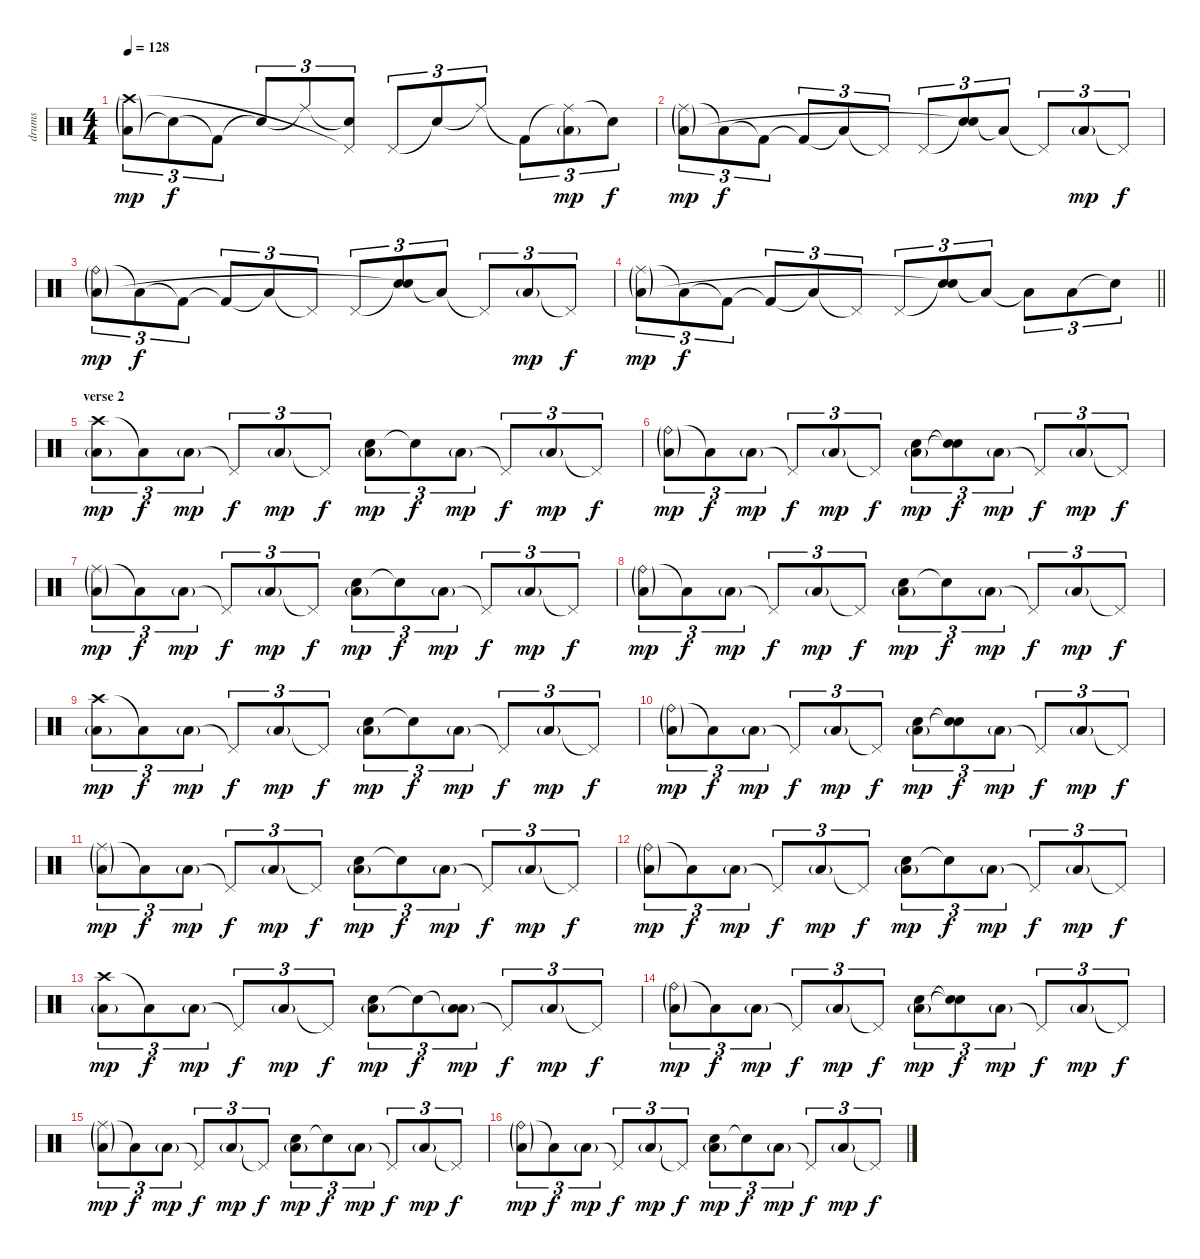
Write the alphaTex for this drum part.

\track ("drums" "drums") {instrument percussion}
\staff {score}
\articulation defaults
\ts (4 4)
\tempo 128
\clef neutral
\ks c
("Low Floor Tom (hit)"{g} "Crash high (hit)"{g}).8{tu (3 2) dy mp} "Snare (hit)"{t}.8{tu (3 2) dy f} "Kick (hit) 2"{t}.8{tu (3 2)} "Snare (hit)"{t}.8{tu (3 2)} "Ride (middle)"{t}.8{tu (3 2)} ("Snare (hit)"{t} "Pedal Hi-Hat (hit)"{t}).8{tu (3 2)} "Pedal Hi-Hat (hit)".8{tu (3 2)} "Snare (hit)"{t}.8{tu (3 2)} "Ride (middle)"{t}.8{tu (3 2)} "Kick (hit) 2"{t}.8{tu (3 2)} ("Ride (middle)"{t} "Low Floor Tom (hit)"{g}).8{tu (3 2) dy mp} "Snare (hit)"{t}.8{tu (3 2) dy f} |
("Ride (middle)"{g} "Low Floor Tom (hit)"{g}).8{tu (3 2) dy mp} "Low Floor Tom (hit)"{t}.8{tu (3 2) dy f} "Kick (hit) 2"{t}.8{tu (3 2)} "Kick (hit) 2"{t}.8{tu (3 2)} "Low Floor Tom (hit)"{t}.8{tu (3 2)} "Pedal Hi-Hat (hit)"{t}.8{tu (3 2)} "Pedal Hi-Hat (hit)".8{tu (3 2)} ("Electric Snare (hit)"{t} "Snare (hit)"{t}).8{tu (3 2)} "Low Floor Tom (hit)"{t}.8{tu (3 2)} "Pedal Hi-Hat (hit)"{t}.8{tu (3 2)} "Low Floor Tom (hit)"{g}.8{tu (3 2) dy mp} "Pedal Hi-Hat (hit)"{t}.8{tu (3 2) dy f} |
("Ride (bell)"{g} "Low Floor Tom (hit)"{g}).8{tu (3 2) dy mp} "Low Floor Tom (hit)"{t}.8{tu (3 2) dy f} "Kick (hit) 2"{t}.8{tu (3 2)} "Kick (hit) 2"{t}.8{tu (3 2)} "Low Floor Tom (hit)"{t}.8{tu (3 2)} "Pedal Hi-Hat (hit)"{t}.8{tu (3 2)} "Pedal Hi-Hat (hit)".8{tu (3 2)} ("Electric Snare (hit)"{t} "Snare (hit)"{t}).8{tu (3 2)} "Low Floor Tom (hit)"{t}.8{tu (3 2)} "Pedal Hi-Hat (hit)"{t}.8{tu (3 2)} "Low Floor Tom (hit)"{g}.8{tu (3 2) dy mp} "Pedal Hi-Hat (hit)"{t}.8{tu (3 2) dy f} |
\barLineRight lightlight
("Ride (middle)"{g} "Low Floor Tom (hit)"{g}).8{tu (3 2) dy mp} "Low Floor Tom (hit)"{t}.8{tu (3 2) dy f} "Kick (hit) 2"{t}.8{tu (3 2)} "Kick (hit) 2"{t}.8{tu (3 2)} "Low Floor Tom (hit)"{t}.8{tu (3 2)} "Pedal Hi-Hat (hit)"{t}.8{tu (3 2)} "Pedal Hi-Hat (hit)".8{tu (3 2)} ("Electric Snare (hit)"{t} "Snare (hit)"{t}).8{tu (3 2)} "Low Floor Tom (hit)"{t}.8{tu (3 2)} "Low Floor Tom (hit)"{t}.8{tu (3 2)} "Low Floor Tom (hit)".8{tu (3 2)} "Electric Snare (hit)"{t}.8{tu (3 2)} |
\section ("" "verse 2")
("Crash high (hit)" "Low Floor Tom (hit)"{g}).8{tu (3 2) dy mp} "Low Floor Tom (hit)"{t}.8{tu (3 2) dy f} "Low Floor Tom (hit)"{g}.8{tu (3 2) dy mp} "Pedal Hi-Hat (hit)"{t}.8{tu (3 2) dy f} "Low Floor Tom (hit)"{g}.8{tu (3 2) dy mp} "Pedal Hi-Hat (hit)"{t}.8{tu (3 2) dy f} ("Electric Snare (hit)" "Low Floor Tom (hit)"{g}).8{tu (3 2) dy mp} "Electric Snare (hit)"{t}.8{tu (3 2) dy f} "Low Floor Tom (hit)"{g}.8{tu (3 2) dy mp} "Pedal Hi-Hat (hit)"{t}.8{tu (3 2) dy f} "Low Floor Tom (hit)"{g}.8{tu (3 2) dy mp} "Pedal Hi-Hat (hit)"{t}.8{tu (3 2) dy f} |
("Ride (bell)"{g} "Low Floor Tom (hit)"{g}).8{tu (3 2) dy mp} "Low Floor Tom (hit)"{t}.8{tu (3 2) dy f} "Low Floor Tom (hit)"{g}.8{tu (3 2) dy mp} "Pedal Hi-Hat (hit)"{t}.8{tu (3 2) dy f} "Low Floor Tom (hit)"{g}.8{tu (3 2) dy mp} "Pedal Hi-Hat (hit)"{t}.8{tu (3 2) dy f} ("Electric Snare (hit)" "Low Floor Tom (hit)"{g}).8{tu (3 2) dy mp} ("Electric Snare (hit)"{t} "Snare (hit)"{t}).8{tu (3 2) dy f} "Low Floor Tom (hit)"{g}.8{tu (3 2) dy mp} "Pedal Hi-Hat (hit)"{t}.8{tu (3 2) dy f} "Low Floor Tom (hit)"{g}.8{tu (3 2) dy mp} "Pedal Hi-Hat (hit)"{t}.8{tu (3 2) dy f} |
("Ride (middle)"{g} "Low Floor Tom (hit)"{g}).8{tu (3 2) dy mp} "Low Floor Tom (hit)"{t}.8{tu (3 2) dy f} "Low Floor Tom (hit)"{g}.8{tu (3 2) dy mp} "Pedal Hi-Hat (hit)"{t}.8{tu (3 2) dy f} "Low Floor Tom (hit)"{g}.8{tu (3 2) dy mp} "Pedal Hi-Hat (hit)"{t}.8{tu (3 2) dy f} ("Electric Snare (hit)" "Low Floor Tom (hit)"{g}).8{tu (3 2) dy mp} "Electric Snare (hit)"{t}.8{tu (3 2) dy f} "Low Floor Tom (hit)"{g}.8{tu (3 2) dy mp} "Pedal Hi-Hat (hit)"{t}.8{tu (3 2) dy f} "Low Floor Tom (hit)"{g}.8{tu (3 2) dy mp} "Pedal Hi-Hat (hit)"{t}.8{tu (3 2) dy f} |
("Ride (bell)"{g} "Low Floor Tom (hit)"{g}).8{tu (3 2) dy mp} "Low Floor Tom (hit)"{t}.8{tu (3 2) dy f} "Low Floor Tom (hit)"{g}.8{tu (3 2) dy mp} "Pedal Hi-Hat (hit)"{t}.8{tu (3 2) dy f} "Low Floor Tom (hit)"{g}.8{tu (3 2) dy mp} "Pedal Hi-Hat (hit)"{t}.8{tu (3 2) dy f} ("Electric Snare (hit)" "Low Floor Tom (hit)"{g}).8{tu (3 2) dy mp} "Electric Snare (hit)"{t}.8{tu (3 2) dy f} "Low Floor Tom (hit)"{g}.8{tu (3 2) dy mp} "Pedal Hi-Hat (hit)"{t}.8{tu (3 2) dy f} "Low Floor Tom (hit)"{g}.8{tu (3 2) dy mp} "Pedal Hi-Hat (hit)"{t}.8{tu (3 2) dy f} |
("Crash high (hit)" "Low Floor Tom (hit)"{g}).8{tu (3 2) dy mp} "Low Floor Tom (hit)"{t}.8{tu (3 2) dy f} "Low Floor Tom (hit)"{g}.8{tu (3 2) dy mp} "Pedal Hi-Hat (hit)"{t}.8{tu (3 2) dy f} "Low Floor Tom (hit)"{g}.8{tu (3 2) dy mp} "Pedal Hi-Hat (hit)"{t}.8{tu (3 2) dy f} ("Electric Snare (hit)" "Low Floor Tom (hit)"{g}).8{tu (3 2) dy mp} "Electric Snare (hit)"{t}.8{tu (3 2) dy f} "Low Floor Tom (hit)"{g}.8{tu (3 2) dy mp} "Pedal Hi-Hat (hit)"{t}.8{tu (3 2) dy f} "Low Floor Tom (hit)"{g}.8{tu (3 2) dy mp} "Pedal Hi-Hat (hit)"{t}.8{tu (3 2) dy f} |
("Ride (bell)"{g} "Low Floor Tom (hit)"{g}).8{tu (3 2) dy mp} "Low Floor Tom (hit)"{t}.8{tu (3 2) dy f} "Low Floor Tom (hit)"{g}.8{tu (3 2) dy mp} "Pedal Hi-Hat (hit)"{t}.8{tu (3 2) dy f} "Low Floor Tom (hit)"{g}.8{tu (3 2) dy mp} "Pedal Hi-Hat (hit)"{t}.8{tu (3 2) dy f} ("Electric Snare (hit)" "Low Floor Tom (hit)"{g}).8{tu (3 2) dy mp} ("Electric Snare (hit)"{t} "Snare (hit)"{t}).8{tu (3 2) dy f} "Low Floor Tom (hit)"{g}.8{tu (3 2) dy mp} "Pedal Hi-Hat (hit)"{t}.8{tu (3 2) dy f} "Low Floor Tom (hit)"{g}.8{tu (3 2) dy mp} "Pedal Hi-Hat (hit)"{t}.8{tu (3 2) dy f} |
("Ride (middle)"{g} "Low Floor Tom (hit)"{g}).8{tu (3 2) dy mp} "Low Floor Tom (hit)"{t}.8{tu (3 2) dy f} "Low Floor Tom (hit)"{g}.8{tu (3 2) dy mp} "Pedal Hi-Hat (hit)"{t}.8{tu (3 2) dy f} "Low Floor Tom (hit)"{g}.8{tu (3 2) dy mp} "Pedal Hi-Hat (hit)"{t}.8{tu (3 2) dy f} ("Electric Snare (hit)" "Low Floor Tom (hit)"{g}).8{tu (3 2) dy mp} "Electric Snare (hit)"{t}.8{tu (3 2) dy f} "Low Floor Tom (hit)"{g}.8{tu (3 2) dy mp} "Pedal Hi-Hat (hit)"{t}.8{tu (3 2) dy f} "Low Floor Tom (hit)"{g}.8{tu (3 2) dy mp} "Pedal Hi-Hat (hit)"{t}.8{tu (3 2) dy f} |
("Ride (bell)"{g} "Low Floor Tom (hit)"{g}).8{tu (3 2) dy mp} "Low Floor Tom (hit)"{t}.8{tu (3 2) dy f} "Low Floor Tom (hit)"{g}.8{tu (3 2) dy mp} "Pedal Hi-Hat (hit)"{t}.8{tu (3 2) dy f} "Low Floor Tom (hit)"{g}.8{tu (3 2) dy mp} "Pedal Hi-Hat (hit)"{t}.8{tu (3 2) dy f} ("Electric Snare (hit)" "Low Floor Tom (hit)"{g}).8{tu (3 2) dy mp} "Electric Snare (hit)"{t}.8{tu (3 2) dy f} "Low Floor Tom (hit)"{g}.8{tu (3 2) dy mp} "Pedal Hi-Hat (hit)"{t}.8{tu (3 2) dy f} "Low Floor Tom (hit)"{g}.8{tu (3 2) dy mp} "Pedal Hi-Hat (hit)"{t}.8{tu (3 2) dy f} |
("Crash high (hit)" "Low Floor Tom (hit)"{g}).8{tu (3 2) dy mp} "Low Floor Tom (hit)"{t}.8{tu (3 2) dy f} "Low Floor Tom (hit)"{g}.8{tu (3 2) dy mp} "Pedal Hi-Hat (hit)"{t}.8{tu (3 2) dy f} "Low Floor Tom (hit)"{g}.8{tu (3 2) dy mp} "Pedal Hi-Hat (hit)"{t}.8{tu (3 2) dy f} ("Electric Snare (hit)" "Low Floor Tom (hit)"{g}).8{tu (3 2) dy mp} "Electric Snare (hit)"{t}.8{tu (3 2) dy f} ("Low Floor Tom (hit)"{t} "Low Floor Tom (hit)"{g}).8{tu (3 2) dy mp} "Pedal Hi-Hat (hit)"{t}.8{tu (3 2) dy f} "Low Floor Tom (hit)"{g}.8{tu (3 2) dy mp} "Pedal Hi-Hat (hit)"{t}.8{tu (3 2) dy f} |
("Ride (bell)"{g} "Low Floor Tom (hit)"{g}).8{tu (3 2) dy mp} "Low Floor Tom (hit)"{t}.8{tu (3 2) dy f} "Low Floor Tom (hit)"{g}.8{tu (3 2) dy mp} "Pedal Hi-Hat (hit)"{t}.8{tu (3 2) dy f} "Low Floor Tom (hit)"{g}.8{tu (3 2) dy mp} "Pedal Hi-Hat (hit)"{t}.8{tu (3 2) dy f} ("Electric Snare (hit)" "Low Floor Tom (hit)"{g}).8{tu (3 2) dy mp} ("Electric Snare (hit)"{t} "Snare (hit)"{t}).8{tu (3 2) dy f} "Low Floor Tom (hit)"{g}.8{tu (3 2) dy mp} "Pedal Hi-Hat (hit)"{t}.8{tu (3 2) dy f} "Low Floor Tom (hit)"{g}.8{tu (3 2) dy mp} "Pedal Hi-Hat (hit)"{t}.8{tu (3 2) dy f} |
("Ride (middle)"{g} "Low Floor Tom (hit)"{g}).8{tu (3 2) dy mp} "Low Floor Tom (hit)"{t}.8{tu (3 2) dy f} "Low Floor Tom (hit)"{g}.8{tu (3 2) dy mp} "Pedal Hi-Hat (hit)"{t}.8{tu (3 2) dy f} "Low Floor Tom (hit)"{g}.8{tu (3 2) dy mp} "Pedal Hi-Hat (hit)"{t}.8{tu (3 2) dy f} ("Electric Snare (hit)" "Low Floor Tom (hit)"{g}).8{tu (3 2) dy mp} "Electric Snare (hit)"{t}.8{tu (3 2) dy f} "Low Floor Tom (hit)"{g}.8{tu (3 2) dy mp} "Pedal Hi-Hat (hit)"{t}.8{tu (3 2) dy f} "Low Floor Tom (hit)"{g}.8{tu (3 2) dy mp} "Pedal Hi-Hat (hit)"{t}.8{tu (3 2) dy f} |
("Ride (bell)"{g} "Low Floor Tom (hit)"{g}).8{tu (3 2) dy mp} "Low Floor Tom (hit)"{t}.8{tu (3 2) dy f} "Low Floor Tom (hit)"{g}.8{tu (3 2) dy mp} "Pedal Hi-Hat (hit)"{t}.8{tu (3 2) dy f} "Low Floor Tom (hit)"{g}.8{tu (3 2) dy mp} "Pedal Hi-Hat (hit)"{t}.8{tu (3 2) dy f} ("Electric Snare (hit)" "Low Floor Tom (hit)"{g}).8{tu (3 2) dy mp} "Electric Snare (hit)"{t}.8{tu (3 2) dy f} "Low Floor Tom (hit)"{g}.8{tu (3 2) dy mp} "Pedal Hi-Hat (hit)"{t}.8{tu (3 2) dy f} "Low Floor Tom (hit)"{g}.8{tu (3 2) dy mp} "Pedal Hi-Hat (hit)"{t}.8{tu (3 2) dy f}
